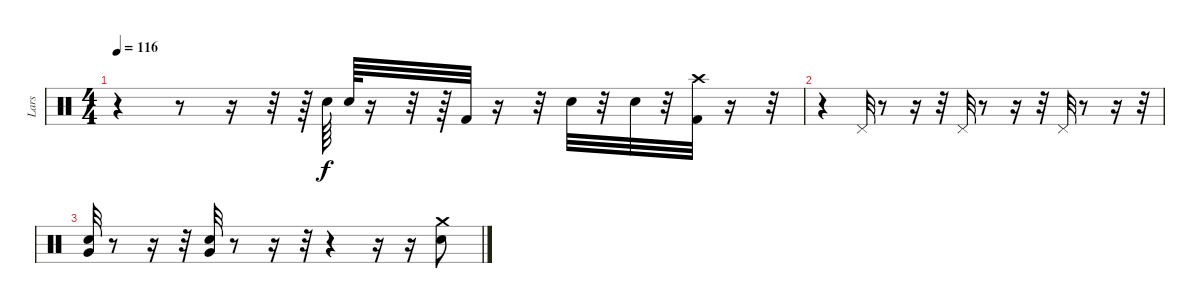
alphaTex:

\track ("Lars" "Lars") {instrument percussion}
\staff {score}
\articulation defaults
\ts (4 4)
\tempo 116
\clef neutral
\ks c
r.4{dy f} r.8 r.16 r.32 r.64 "Snare (hit) 2".64 "Snare (hit) 2".64 r.16 r.32 r.64 "Kick (hit) 2".32 r.16 r.32 "Snare (hit) 2".32 r.32 "Snare (hit) 2".32 r.32 ("Kick (hit) 2" "Crash high (hit)").32 r.16 r.32 |
r.4 "Pedal Hi-Hat (hit)".32 r.8 r.16 r.32 "Pedal Hi-Hat (hit)".32 r.8 r.16 r.32 "Pedal Hi-Hat (hit)".32 r.8 r.16 r.32 |
("Very Low Tom (hit)" "Snare (hit) 2").32 r.8 r.16 r.32 ("Very Low Tom (hit)" "Snare (hit) 2").32 r.8 r.16 r.32 r.4 r.16 r.16 ("Crash medium (hit)" "Electric Snare (hit)").8
